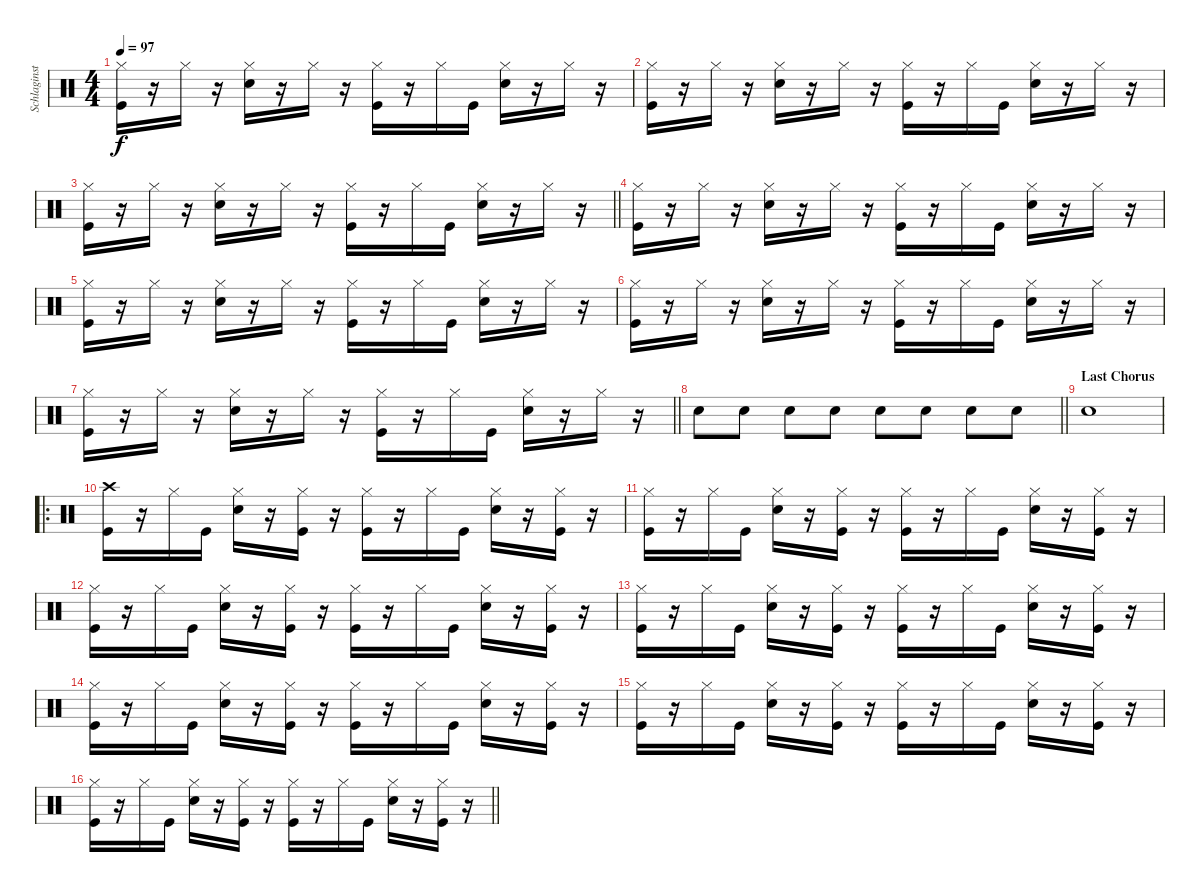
\track ("Schlaginstrumente - Auswahl" "Schlaginst") {instrument percussion}
\staff {score}
\articulation defaults
\ts (4 4)
\tempo 97
\clef neutral
\ks c
("Hi-Hat (closed)" "Kick (hit)").16{dy f} r.16 "Hi-Hat (closed)".16 r.16 ("Hi-Hat (closed)" "Snare (hit) 2").16 r.16 "Hi-Hat (closed)".16 r.16 ("Hi-Hat (closed)" "Kick (hit)").16 r.16 "Hi-Hat (closed)".16 "Kick (hit)".16 ("Hi-Hat (closed)" "Snare (hit) 2").16 r.16 "Hi-Hat (closed)".16 r.16 |
("Hi-Hat (closed)" "Kick (hit)").16 r.16 "Hi-Hat (closed)".16 r.16 ("Hi-Hat (closed)" "Snare (hit) 2").16 r.16 "Hi-Hat (closed)".16 r.16 ("Hi-Hat (closed)" "Kick (hit)").16 r.16 "Hi-Hat (closed)".16 "Kick (hit)".16 ("Hi-Hat (closed)" "Snare (hit) 2").16 r.16 "Hi-Hat (closed)".16 r.16 |
\barLineRight lightlight
("Hi-Hat (closed)" "Kick (hit)").16 r.16 "Hi-Hat (closed)".16 r.16 ("Hi-Hat (closed)" "Snare (hit) 2").16 r.16 "Hi-Hat (closed)".16 r.16 ("Hi-Hat (closed)" "Kick (hit)").16 r.16 "Hi-Hat (closed)".16 "Kick (hit)".16 ("Hi-Hat (closed)" "Snare (hit) 2").16 r.16 "Hi-Hat (closed)".16 r.16 |
("Hi-Hat (closed)" "Kick (hit)").16 r.16 "Hi-Hat (closed)".16 r.16 ("Hi-Hat (closed)" "Snare (hit) 2").16 r.16 "Hi-Hat (closed)".16 r.16 ("Hi-Hat (closed)" "Kick (hit)").16 r.16 "Hi-Hat (closed)".16 "Kick (hit)".16 ("Hi-Hat (closed)" "Snare (hit) 2").16 r.16 "Hi-Hat (closed)".16 r.16 |
("Hi-Hat (closed)" "Kick (hit)").16 r.16 "Hi-Hat (closed)".16 r.16 ("Hi-Hat (closed)" "Snare (hit) 2").16 r.16 "Hi-Hat (closed)".16 r.16 ("Hi-Hat (closed)" "Kick (hit)").16 r.16 "Hi-Hat (closed)".16 "Kick (hit)".16 ("Hi-Hat (closed)" "Snare (hit) 2").16 r.16 "Hi-Hat (closed)".16 r.16 |
("Hi-Hat (closed)" "Kick (hit)").16 r.16 "Hi-Hat (closed)".16 r.16 ("Hi-Hat (closed)" "Snare (hit) 2").16 r.16 "Hi-Hat (closed)".16 r.16 ("Hi-Hat (closed)" "Kick (hit)").16 r.16 "Hi-Hat (closed)".16 "Kick (hit)".16 ("Hi-Hat (closed)" "Snare (hit) 2").16 r.16 "Hi-Hat (closed)".16 r.16 |
\barLineRight lightlight
("Hi-Hat (closed)" "Kick (hit)").16 r.16 "Hi-Hat (closed)".16 r.16 ("Hi-Hat (closed)" "Snare (hit) 2").16 r.16 "Hi-Hat (closed)".16 r.16 ("Hi-Hat (closed)" "Kick (hit)").16 r.16 "Hi-Hat (closed)".16 "Kick (hit)".16 ("Hi-Hat (closed)" "Snare (hit) 2").16 r.16 "Hi-Hat (closed)".16 r.16 |
\barLineRight lightlight "Snare (hit) 2".8 "Snare (hit) 2".8 "Snare (hit) 2".8 "Snare (hit) 2".8 "Snare (hit) 2".8 "Snare (hit) 2".8 "Snare (hit) 2".8 "Snare (hit) 2".8
|
\section ("" "Last Chorus")
"Snare (hit) 2".1 |
\ro
("Crash high (hit)" "Kick (hit)").16 r.16 "Hi-Hat (closed)".16 "Kick (hit)".16 ("Hi-Hat (closed)" "Snare (hit) 2").16 r.16 ("Hi-Hat (closed)" "Kick (hit)").16 r.16 ("Hi-Hat (closed)" "Kick (hit)").16 r.16 "Hi-Hat (closed)".16 "Kick (hit)".16 ("Hi-Hat (closed)" "Snare (hit) 2").16 r.16 ("Hi-Hat (closed)" "Kick (hit)").16 r.16 |
("Hi-Hat (closed)" "Kick (hit)").16 r.16 "Hi-Hat (closed)".16 "Kick (hit)".16 ("Hi-Hat (closed)" "Snare (hit) 2").16 r.16 ("Hi-Hat (closed)" "Kick (hit)").16 r.16 ("Hi-Hat (closed)" "Kick (hit)").16 r.16 "Hi-Hat (closed)".16 "Kick (hit)".16 ("Hi-Hat (closed)" "Snare (hit) 2").16 r.16 ("Hi-Hat (closed)" "Kick (hit)").16 r.16 |
("Hi-Hat (closed)" "Kick (hit)").16 r.16 "Hi-Hat (closed)".16 "Kick (hit)".16 ("Hi-Hat (closed)" "Snare (hit) 2").16 r.16 ("Hi-Hat (closed)" "Kick (hit)").16 r.16 ("Hi-Hat (closed)" "Kick (hit)").16 r.16 "Hi-Hat (closed)".16 "Kick (hit)".16 ("Hi-Hat (closed)" "Snare (hit) 2").16 r.16 ("Hi-Hat (closed)" "Kick (hit)").16 r.16 |
("Hi-Hat (closed)" "Kick (hit)").16 r.16 "Hi-Hat (closed)".16 "Kick (hit)".16 ("Hi-Hat (closed)" "Snare (hit) 2").16 r.16 ("Hi-Hat (closed)" "Kick (hit)").16 r.16 ("Hi-Hat (closed)" "Kick (hit)").16 r.16 "Hi-Hat (closed)".16 "Kick (hit)".16 ("Hi-Hat (closed)" "Snare (hit) 2").16 r.16 ("Hi-Hat (closed)" "Kick (hit)").16 r.16 |
("Hi-Hat (closed)" "Kick (hit)").16 r.16 "Hi-Hat (closed)".16 "Kick (hit)".16 ("Hi-Hat (closed)" "Snare (hit) 2").16 r.16 ("Hi-Hat (closed)" "Kick (hit)").16 r.16 ("Hi-Hat (closed)" "Kick (hit)").16 r.16 "Hi-Hat (closed)".16 "Kick (hit)".16 ("Hi-Hat (closed)" "Snare (hit) 2").16 r.16 ("Hi-Hat (closed)" "Kick (hit)").16 r.16 |
("Hi-Hat (closed)" "Kick (hit)").16 r.16 "Hi-Hat (closed)".16 "Kick (hit)".16 ("Hi-Hat (closed)" "Snare (hit) 2").16 r.16 ("Hi-Hat (closed)" "Kick (hit)").16 r.16 ("Hi-Hat (closed)" "Kick (hit)").16 r.16 "Hi-Hat (closed)".16 "Kick (hit)".16 ("Hi-Hat (closed)" "Snare (hit) 2").16 r.16 ("Hi-Hat (closed)" "Kick (hit)").16 r.16 |
\barLineRight lightlight
("Hi-Hat (closed)" "Kick (hit)").16 r.16 "Hi-Hat (closed)".16 "Kick (hit)".16 ("Hi-Hat (closed)" "Snare (hit) 2").16 r.16 ("Hi-Hat (closed)" "Kick (hit)").16 r.16 ("Hi-Hat (closed)" "Kick (hit)").16 r.16 "Hi-Hat (closed)".16 "Kick (hit)".16 ("Hi-Hat (closed)" "Snare (hit) 2").16 r.16 ("Hi-Hat (closed)" "Kick (hit)").16 r.16
